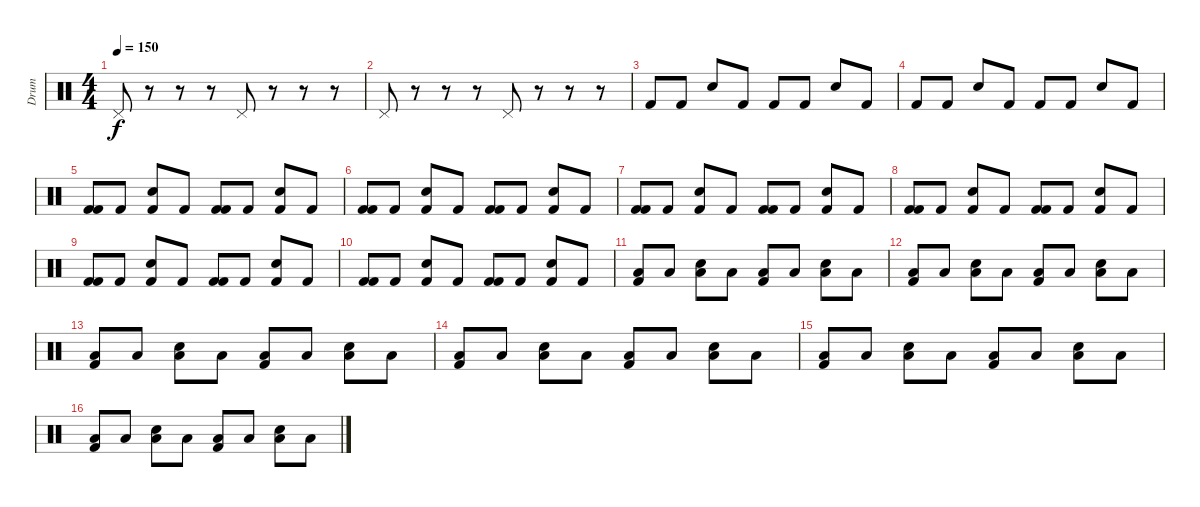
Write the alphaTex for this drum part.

\track ("Drum" "Drum") {instrument percussion}
\staff {score}
\articulation defaults
\ts (4 4)
\tempo 150
\clef neutral
\ks c "Pedal Hi-Hat (hit)".8{dy f}
r.8 r.8 r.8 "Pedal Hi-Hat (hit)".8 r.8 r.8 r.8 |
"Pedal Hi-Hat (hit)".8 r.8 r.8 r.8 "Pedal Hi-Hat (hit)".8 r.8 r.8 r.8 |
"Kick (hit) 2".8 "Kick (hit) 2".8 "Electric Snare (hit)".8 "Kick (hit) 2".8 "Kick (hit) 2".8 "Kick (hit) 2".8 "Electric Snare (hit)".8 "Kick (hit) 2".8 |
"Kick (hit) 2".8 "Kick (hit) 2".8 "Electric Snare (hit)".8 "Kick (hit) 2".8 "Kick (hit) 2".8 "Kick (hit) 2".8 "Electric Snare (hit)".8 "Kick (hit) 2".8 |
("Kick (hit) 2" "Kick (hit) 2").8 "Kick (hit) 2".8 ("Kick (hit) 2" "Electric Snare (hit)").8 "Kick (hit) 2".8 ("Kick (hit) 2" "Kick (hit) 2").8 "Kick (hit) 2".8 ("Kick (hit) 2" "Electric Snare (hit)").8 "Kick (hit) 2".8 |
("Kick (hit) 2" "Kick (hit) 2").8 "Kick (hit) 2".8 ("Kick (hit) 2" "Electric Snare (hit)").8 "Kick (hit) 2".8 ("Kick (hit) 2" "Kick (hit) 2").8 "Kick (hit) 2".8 ("Kick (hit) 2" "Electric Snare (hit)").8 "Kick (hit) 2".8 |
("Kick (hit) 2" "Kick (hit) 2").8 "Kick (hit) 2".8 ("Kick (hit) 2" "Electric Snare (hit)").8 "Kick (hit) 2".8 ("Kick (hit) 2" "Kick (hit) 2").8 "Kick (hit) 2".8 ("Kick (hit) 2" "Electric Snare (hit)").8 "Kick (hit) 2".8 |
("Kick (hit) 2" "Kick (hit) 2").8 "Kick (hit) 2".8 ("Kick (hit) 2" "Electric Snare (hit)").8 "Kick (hit) 2".8 ("Kick (hit) 2" "Kick (hit) 2").8 "Kick (hit) 2".8 ("Kick (hit) 2" "Electric Snare (hit)").8 "Kick (hit) 2".8 |
("Kick (hit) 2" "Kick (hit) 2").8 "Kick (hit) 2".8 ("Kick (hit) 2" "Electric Snare (hit)").8 "Kick (hit) 2".8 ("Kick (hit) 2" "Kick (hit) 2").8 "Kick (hit) 2".8 ("Kick (hit) 2" "Electric Snare (hit)").8 "Kick (hit) 2".8 |
("Kick (hit) 2" "Kick (hit) 2").8 "Kick (hit) 2".8 ("Kick (hit) 2" "Electric Snare (hit)").8 "Kick (hit) 2".8 ("Kick (hit) 2" "Kick (hit) 2").8 "Kick (hit) 2".8 ("Kick (hit) 2" "Electric Snare (hit)").8 "Kick (hit) 2".8 |
("Low Floor Tom (hit)" "Kick (hit) 2").8 "Low Floor Tom (hit)".8 ("Low Floor Tom (hit)" "Electric Snare (hit)").8 "Low Floor Tom (hit)".8 ("Low Floor Tom (hit)" "Kick (hit) 2").8 "Low Floor Tom (hit)".8 ("Low Floor Tom (hit)" "Electric Snare (hit)").8 "Low Floor Tom (hit)".8 |
("Low Floor Tom (hit)" "Kick (hit) 2").8 "Low Floor Tom (hit)".8 ("Low Floor Tom (hit)" "Electric Snare (hit)").8 "Low Floor Tom (hit)".8 ("Low Floor Tom (hit)" "Kick (hit) 2").8 "Low Floor Tom (hit)".8 ("Low Floor Tom (hit)" "Electric Snare (hit)").8 "Low Floor Tom (hit)".8 |
("Low Floor Tom (hit)" "Kick (hit) 2").8 "Low Floor Tom (hit)".8 ("Low Floor Tom (hit)" "Electric Snare (hit)").8 "Low Floor Tom (hit)".8 ("Low Floor Tom (hit)" "Kick (hit) 2").8 "Low Floor Tom (hit)".8 ("Low Floor Tom (hit)" "Electric Snare (hit)").8 "Low Floor Tom (hit)".8 |
("Low Floor Tom (hit)" "Kick (hit) 2").8 "Low Floor Tom (hit)".8 ("Low Floor Tom (hit)" "Electric Snare (hit)").8 "Low Floor Tom (hit)".8 ("Low Floor Tom (hit)" "Kick (hit) 2").8 "Low Floor Tom (hit)".8 ("Low Floor Tom (hit)" "Electric Snare (hit)").8 "Low Floor Tom (hit)".8 |
("Low Floor Tom (hit)" "Kick (hit) 2").8 "Low Floor Tom (hit)".8 ("Low Floor Tom (hit)" "Electric Snare (hit)").8 "Low Floor Tom (hit)".8 ("Low Floor Tom (hit)" "Kick (hit) 2").8 "Low Floor Tom (hit)".8 ("Low Floor Tom (hit)" "Electric Snare (hit)").8 "Low Floor Tom (hit)".8 |
("Low Floor Tom (hit)" "Kick (hit) 2").8 "Low Floor Tom (hit)".8 ("Low Floor Tom (hit)" "Electric Snare (hit)").8 "Low Floor Tom (hit)".8 ("Low Floor Tom (hit)" "Kick (hit) 2").8 "Low Floor Tom (hit)".8 ("Low Floor Tom (hit)" "Electric Snare (hit)").8 "Low Floor Tom (hit)".8
